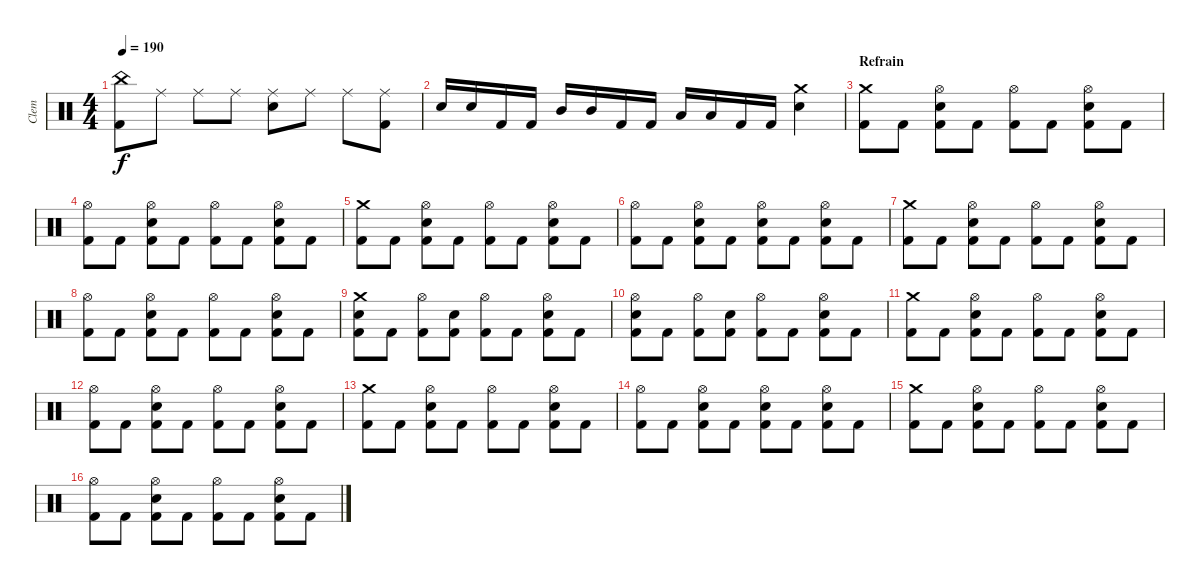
\track ("Clem" "Clem") {instrument percussion}
\staff {score}
\articulation defaults
\ts (4 4)
\tempo 190
\clef neutral
\ks c
("China (hit)" "Kick (hit) 2").8{dy f} "Ride (middle)".8 "Ride (middle)".8 "Ride (middle)".8 ("Ride (middle)" "Electric Snare (hit)").8 "Ride (middle)".8 "Ride (middle)".8 ("Ride (middle)" "Kick (hit) 2").8 |
"Electric Snare (hit)".16 "Electric Snare (hit)".16 "Kick (hit) 2".16 "Kick (hit) 2".16 "Mid Tom (hit)".16 "Mid Tom (hit)".16 "Kick (hit) 2".16 "Kick (hit) 2".16 "Low Tom (hit)".16 "Low Tom (hit)".16 "Kick (hit) 2".16 "Kick (hit) 2".16 ("Crash medium (hit)" "Electric Snare (hit)").4 |
\section ("" "Refrain")
("Crash medium (hit)" "Kick (hit) 2").8 "Kick (hit) 2".8 ("Hi-Hat (open)" "Electric Snare (hit)" "Kick (hit) 2").8 "Kick (hit) 2".8 ("Hi-Hat (open)" "Kick (hit) 2").8 "Kick (hit) 2".8 ("Hi-Hat (open)" "Electric Snare (hit)" "Kick (hit) 2").8 "Kick (hit) 2".8 |
("Hi-Hat (open)" "Kick (hit) 2").8 "Kick (hit) 2".8 ("Hi-Hat (open)" "Electric Snare (hit)" "Kick (hit) 2").8 "Kick (hit) 2".8 ("Hi-Hat (open)" "Kick (hit) 2").8 "Kick (hit) 2".8 ("Hi-Hat (open)" "Electric Snare (hit)" "Kick (hit) 2").8 "Kick (hit) 2".8 |
("Crash medium (hit)" "Kick (hit) 2").8 "Kick (hit) 2".8 ("Hi-Hat (open)" "Electric Snare (hit)" "Kick (hit) 2").8 "Kick (hit) 2".8 ("Hi-Hat (open)" "Kick (hit) 2").8 "Kick (hit) 2".8 ("Hi-Hat (open)" "Electric Snare (hit)" "Kick (hit) 2").8 "Kick (hit) 2".8 |
("Hi-Hat (open)" "Kick (hit) 2").8 "Kick (hit) 2".8 ("Hi-Hat (open)" "Electric Snare (hit)" "Kick (hit) 2").8 "Kick (hit) 2".8 ("Hi-Hat (open)" "Electric Snare (hit)" "Kick (hit) 2").8 "Kick (hit) 2".8 ("Hi-Hat (open)" "Electric Snare (hit)" "Kick (hit) 2").8 "Kick (hit) 2".8 |
("Crash medium (hit)" "Kick (hit) 2").8 "Kick (hit) 2".8 ("Hi-Hat (open)" "Electric Snare (hit)" "Kick (hit) 2").8 "Kick (hit) 2".8 ("Hi-Hat (open)" "Kick (hit) 2").8 "Kick (hit) 2".8 ("Hi-Hat (open)" "Electric Snare (hit)" "Kick (hit) 2").8 "Kick (hit) 2".8 |
("Hi-Hat (open)" "Kick (hit) 2").8 "Kick (hit) 2".8 ("Hi-Hat (open)" "Electric Snare (hit)" "Kick (hit) 2").8 "Kick (hit) 2".8 ("Hi-Hat (open)" "Kick (hit) 2").8 "Kick (hit) 2".8 ("Hi-Hat (open)" "Electric Snare (hit)" "Kick (hit) 2").8 "Kick (hit) 2".8 |
("Crash medium (hit)" "Electric Snare (hit)" "Kick (hit) 2").8 "Kick (hit) 2".8 ("Hi-Hat (open)" "Kick (hit) 2").8 ("Electric Snare (hit)" "Kick (hit) 2").8 ("Hi-Hat (open)" "Kick (hit) 2").8 "Kick (hit) 2".8 ("Hi-Hat (open)" "Electric Snare (hit)" "Kick (hit) 2").8 "Kick (hit) 2".8 |
("Hi-Hat (open)" "Electric Snare (hit)" "Kick (hit) 2").8 "Kick (hit) 2".8 ("Hi-Hat (open)" "Kick (hit) 2").8 ("Electric Snare (hit)" "Kick (hit) 2").8 ("Hi-Hat (open)" "Kick (hit) 2").8 "Kick (hit) 2".8 ("Hi-Hat (open)" "Electric Snare (hit)" "Kick (hit) 2").8 "Kick (hit) 2".8 |
("Crash medium (hit)" "Kick (hit) 2").8 "Kick (hit) 2".8 ("Hi-Hat (open)" "Electric Snare (hit)" "Kick (hit) 2").8 "Kick (hit) 2".8 ("Hi-Hat (open)" "Kick (hit) 2").8 "Kick (hit) 2".8 ("Hi-Hat (open)" "Electric Snare (hit)" "Kick (hit) 2").8 "Kick (hit) 2".8 |
("Hi-Hat (open)" "Kick (hit) 2").8 "Kick (hit) 2".8 ("Hi-Hat (open)" "Electric Snare (hit)" "Kick (hit) 2").8 "Kick (hit) 2".8 ("Hi-Hat (open)" "Kick (hit) 2").8 "Kick (hit) 2".8 ("Hi-Hat (open)" "Electric Snare (hit)" "Kick (hit) 2").8 "Kick (hit) 2".8 |
("Crash medium (hit)" "Kick (hit) 2").8 "Kick (hit) 2".8 ("Hi-Hat (open)" "Electric Snare (hit)" "Kick (hit) 2").8 "Kick (hit) 2".8 ("Hi-Hat (open)" "Kick (hit) 2").8 "Kick (hit) 2".8 ("Hi-Hat (open)" "Electric Snare (hit)" "Kick (hit) 2").8 "Kick (hit) 2".8 |
("Hi-Hat (open)" "Kick (hit) 2").8 "Kick (hit) 2".8 ("Hi-Hat (open)" "Electric Snare (hit)" "Kick (hit) 2").8 "Kick (hit) 2".8 ("Hi-Hat (open)" "Electric Snare (hit)" "Kick (hit) 2").8 "Kick (hit) 2".8 ("Hi-Hat (open)" "Electric Snare (hit)" "Kick (hit) 2").8 "Kick (hit) 2".8 |
("Crash medium (hit)" "Kick (hit) 2").8 "Kick (hit) 2".8 ("Hi-Hat (open)" "Electric Snare (hit)" "Kick (hit) 2").8 "Kick (hit) 2".8 ("Hi-Hat (open)" "Kick (hit) 2").8 "Kick (hit) 2".8 ("Hi-Hat (open)" "Electric Snare (hit)" "Kick (hit) 2").8 "Kick (hit) 2".8 |
("Hi-Hat (open)" "Kick (hit) 2").8 "Kick (hit) 2".8 ("Hi-Hat (open)" "Electric Snare (hit)" "Kick (hit) 2").8 "Kick (hit) 2".8 ("Hi-Hat (open)" "Kick (hit) 2").8 "Kick (hit) 2".8 ("Hi-Hat (open)" "Electric Snare (hit)" "Kick (hit) 2").8 "Kick (hit) 2".8
